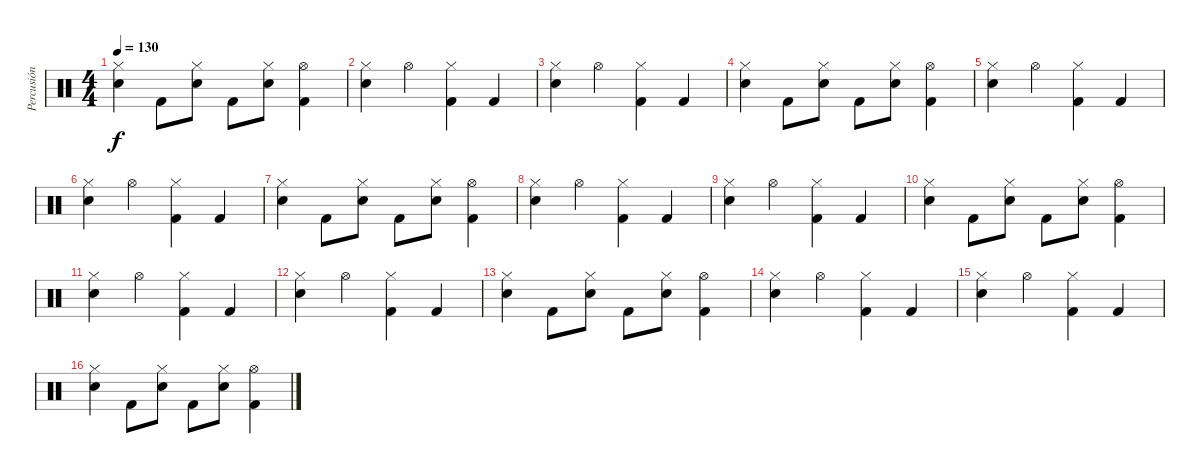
\track ("Percusión" "Percusión") {instrument percussion}
\staff {score}
\articulation defaults
\ts (4 4)
\tempo 130
\clef neutral
\ks c
("Hi-Hat (closed)" "Electric Snare (hit)").4{dy f} "Kick (hit) 2".8 ("Hi-Hat (closed)" "Electric Snare (hit)").8 "Kick (hit) 2".8 ("Hi-Hat (closed)" "Electric Snare (hit)").8 ("Hi-Hat (open)" "Kick (hit) 2").4 |
("Hi-Hat (closed)" "Electric Snare (hit)").4 "Hi-Hat (open)".4 ("Hi-Hat (closed)" "Kick (hit) 2").4 "Kick (hit) 2".4 |
("Hi-Hat (closed)" "Electric Snare (hit)").4 "Hi-Hat (open)".4 ("Hi-Hat (closed)" "Kick (hit) 2").4 "Kick (hit) 2".4 |
("Hi-Hat (closed)" "Electric Snare (hit)").4 "Kick (hit) 2".8 ("Hi-Hat (closed)" "Electric Snare (hit)").8 "Kick (hit) 2".8 ("Hi-Hat (closed)" "Electric Snare (hit)").8 ("Hi-Hat (open)" "Kick (hit) 2").4 |
("Hi-Hat (closed)" "Electric Snare (hit)").4 "Hi-Hat (open)".4 ("Hi-Hat (closed)" "Kick (hit) 2").4 "Kick (hit) 2".4 |
("Hi-Hat (closed)" "Electric Snare (hit)").4 "Hi-Hat (open)".4 ("Hi-Hat (closed)" "Kick (hit) 2").4 "Kick (hit) 2".4 |
("Hi-Hat (closed)" "Electric Snare (hit)").4 "Kick (hit) 2".8 ("Hi-Hat (closed)" "Electric Snare (hit)").8 "Kick (hit) 2".8 ("Hi-Hat (closed)" "Electric Snare (hit)").8 ("Hi-Hat (open)" "Kick (hit) 2").4 |
("Hi-Hat (closed)" "Electric Snare (hit)").4 "Hi-Hat (open)".4 ("Hi-Hat (closed)" "Kick (hit) 2").4 "Kick (hit) 2".4 |
("Hi-Hat (closed)" "Electric Snare (hit)").4 "Hi-Hat (open)".4 ("Hi-Hat (closed)" "Kick (hit) 2").4 "Kick (hit) 2".4 |
("Hi-Hat (closed)" "Electric Snare (hit)").4 "Kick (hit) 2".8 ("Hi-Hat (closed)" "Electric Snare (hit)").8 "Kick (hit) 2".8 ("Hi-Hat (closed)" "Electric Snare (hit)").8 ("Hi-Hat (open)" "Kick (hit) 2").4 |
("Hi-Hat (closed)" "Electric Snare (hit)").4 "Hi-Hat (open)".4 ("Hi-Hat (closed)" "Kick (hit) 2").4 "Kick (hit) 2".4 |
("Hi-Hat (closed)" "Electric Snare (hit)").4 "Hi-Hat (open)".4 ("Hi-Hat (closed)" "Kick (hit) 2").4 "Kick (hit) 2".4 |
("Hi-Hat (closed)" "Electric Snare (hit)").4 "Kick (hit) 2".8 ("Hi-Hat (closed)" "Electric Snare (hit)").8 "Kick (hit) 2".8 ("Hi-Hat (closed)" "Electric Snare (hit)").8 ("Hi-Hat (open)" "Kick (hit) 2").4 |
("Hi-Hat (closed)" "Electric Snare (hit)").4 "Hi-Hat (open)".4 ("Hi-Hat (closed)" "Kick (hit) 2").4 "Kick (hit) 2".4 |
("Hi-Hat (closed)" "Electric Snare (hit)").4 "Hi-Hat (open)".4 ("Hi-Hat (closed)" "Kick (hit) 2").4 "Kick (hit) 2".4 |
("Hi-Hat (closed)" "Electric Snare (hit)").4 "Kick (hit) 2".8 ("Hi-Hat (closed)" "Electric Snare (hit)").8 "Kick (hit) 2".8 ("Hi-Hat (closed)" "Electric Snare (hit)").8 ("Hi-Hat (open)" "Kick (hit) 2").4
